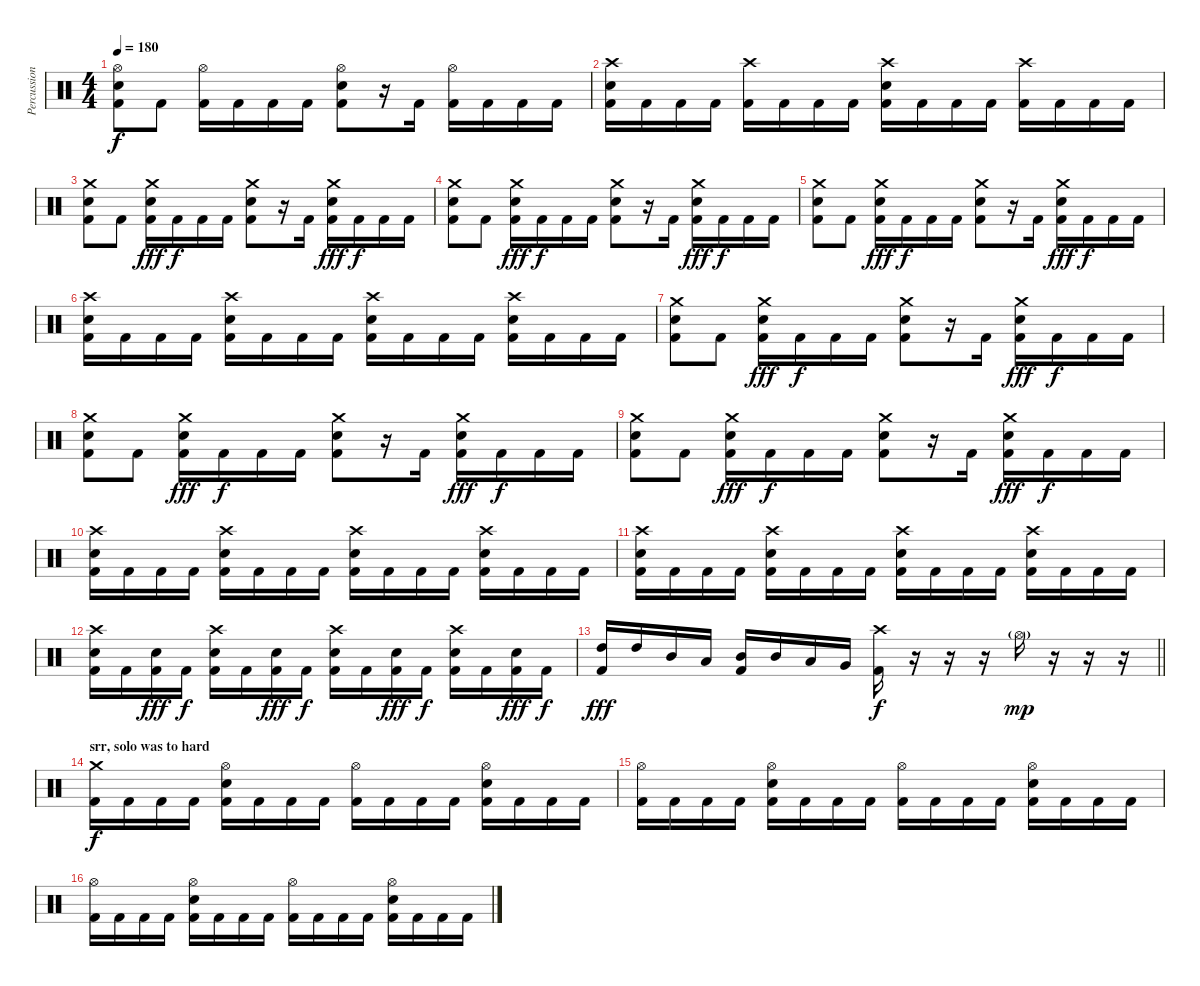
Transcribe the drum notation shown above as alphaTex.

\track ("Percussion" "Percussion") {instrument percussion}
\staff {score}
\articulation defaults
\ts (4 4)
\tempo 180
\clef neutral
\ks c
("Hi-Hat (open)" "Snare (hit) 2" "Kick (hit) 2").8{dy f} "Kick (hit) 2".8 ("Hi-Hat (open)" "Kick (hit) 2").16 "Kick (hit) 2".16 "Kick (hit) 2".16 "Kick (hit) 2".16 ("Hi-Hat (open)" "Snare (hit) 2" "Kick (hit) 2").8 r.16 "Kick (hit) 2".16 ("Hi-Hat (open)" "Kick (hit) 2").16 "Kick (hit) 2".16 "Kick (hit) 2".16 "Kick (hit) 2".16 |
("Crash high (hit)" "Snare (hit) 2" "Kick (hit) 2").16 "Kick (hit) 2".16 "Kick (hit) 2".16 "Kick (hit) 2".16 ("Crash high (hit)" "Kick (hit) 2").16 "Kick (hit) 2".16 "Kick (hit) 2".16 "Kick (hit) 2".16 ("Crash high (hit)" "Snare (hit) 2" "Kick (hit) 2").16 "Kick (hit) 2".16 "Kick (hit) 2".16 "Kick (hit) 2".16 ("Crash high (hit)" "Kick (hit) 2").16 "Kick (hit) 2".16 "Kick (hit) 2".16 "Kick (hit) 2".16 |
("Crash medium (hit)" "Snare (hit) 2" "Kick (hit) 2").8 "Kick (hit) 2".8 ("Crash medium (hit)" "Snare (hit) 2" "Kick (hit) 2").16{dy fff} "Kick (hit) 2".16{dy f} "Kick (hit) 2".16 "Kick (hit) 2".16 ("Crash medium (hit)" "Snare (hit) 2" "Kick (hit) 2").8 r.16 "Kick (hit) 2".16 ("Crash medium (hit)" "Snare (hit) 2" "Kick (hit) 2").16{dy fff} "Kick (hit) 2".16{dy f} "Kick (hit) 2".16 "Kick (hit) 2".16 |
("Crash medium (hit)" "Snare (hit) 2" "Kick (hit) 2").8 "Kick (hit) 2".8 ("Crash medium (hit)" "Snare (hit) 2" "Kick (hit) 2").16{dy fff} "Kick (hit) 2".16{dy f} "Kick (hit) 2".16 "Kick (hit) 2".16 ("Crash medium (hit)" "Snare (hit) 2" "Kick (hit) 2").8 r.16 "Kick (hit) 2".16 ("Crash medium (hit)" "Snare (hit) 2" "Kick (hit) 2").16{dy fff} "Kick (hit) 2".16{dy f} "Kick (hit) 2".16 "Kick (hit) 2".16 |
("Crash medium (hit)" "Snare (hit) 2" "Kick (hit) 2").8 "Kick (hit) 2".8 ("Crash medium (hit)" "Snare (hit) 2" "Kick (hit) 2").16{dy fff} "Kick (hit) 2".16{dy f} "Kick (hit) 2".16 "Kick (hit) 2".16 ("Crash medium (hit)" "Snare (hit) 2" "Kick (hit) 2").8 r.16 "Kick (hit) 2".16 ("Crash medium (hit)" "Snare (hit) 2" "Kick (hit) 2").16{dy fff} "Kick (hit) 2".16{dy f} "Kick (hit) 2".16 "Kick (hit) 2".16 |
("Crash high (hit)" "Snare (hit) 2" "Kick (hit) 2").16 "Kick (hit) 2".16 "Kick (hit) 2".16 "Kick (hit) 2".16 ("Crash high (hit)" "Snare (hit) 2" "Kick (hit) 2").16 "Kick (hit) 2".16 "Kick (hit) 2".16 "Kick (hit) 2".16 ("Crash high (hit)" "Snare (hit) 2" "Kick (hit) 2").16 "Kick (hit) 2".16 "Kick (hit) 2".16 "Kick (hit) 2".16 ("Crash high (hit)" "Snare (hit) 2" "Kick (hit) 2").16 "Kick (hit) 2".16 "Kick (hit) 2".16 "Kick (hit) 2".16 |
("Crash medium (hit)" "Snare (hit) 2" "Kick (hit) 2").8 "Kick (hit) 2".8 ("Crash medium (hit)" "Snare (hit) 2" "Kick (hit) 2").16{dy fff} "Kick (hit) 2".16{dy f} "Kick (hit) 2".16 "Kick (hit) 2".16 ("Crash medium (hit)" "Snare (hit) 2" "Kick (hit) 2").8 r.16 "Kick (hit) 2".16 ("Crash medium (hit)" "Snare (hit) 2" "Kick (hit) 2").16{dy fff} "Kick (hit) 2".16{dy f} "Kick (hit) 2".16 "Kick (hit) 2".16 |
("Crash medium (hit)" "Snare (hit) 2" "Kick (hit) 2").8 "Kick (hit) 2".8 ("Crash medium (hit)" "Snare (hit) 2" "Kick (hit) 2").16{dy fff} "Kick (hit) 2".16{dy f} "Kick (hit) 2".16 "Kick (hit) 2".16 ("Crash medium (hit)" "Snare (hit) 2" "Kick (hit) 2").8 r.16 "Kick (hit) 2".16 ("Crash medium (hit)" "Snare (hit) 2" "Kick (hit) 2").16{dy fff} "Kick (hit) 2".16{dy f} "Kick (hit) 2".16 "Kick (hit) 2".16 |
("Crash medium (hit)" "Snare (hit) 2" "Kick (hit) 2").8 "Kick (hit) 2".8 ("Crash medium (hit)" "Snare (hit) 2" "Kick (hit) 2").16{dy fff} "Kick (hit) 2".16{dy f} "Kick (hit) 2".16 "Kick (hit) 2".16 ("Crash medium (hit)" "Snare (hit) 2" "Kick (hit) 2").8 r.16 "Kick (hit) 2".16 ("Crash medium (hit)" "Snare (hit) 2" "Kick (hit) 2").16{dy fff} "Kick (hit) 2".16{dy f} "Kick (hit) 2".16 "Kick (hit) 2".16 |
("Crash high (hit)" "Snare (hit) 2" "Kick (hit) 2").16 "Kick (hit) 2".16 "Kick (hit) 2".16 "Kick (hit) 2".16 ("Crash high (hit)" "Snare (hit) 2" "Kick (hit) 2").16 "Kick (hit) 2".16 "Kick (hit) 2".16 "Kick (hit) 2".16 ("Crash high (hit)" "Snare (hit) 2" "Kick (hit) 2").16 "Kick (hit) 2".16 "Kick (hit) 2".16 "Kick (hit) 2".16 ("Crash high (hit)" "Snare (hit) 2" "Kick (hit) 2").16 "Kick (hit) 2".16 "Kick (hit) 2".16 "Kick (hit) 2".16 |
("Crash high (hit)" "Snare (hit) 2" "Kick (hit) 2").16 "Kick (hit) 2".16 "Kick (hit) 2".16 "Kick (hit) 2".16 ("Crash high (hit)" "Snare (hit) 2" "Kick (hit) 2").16 "Kick (hit) 2".16 "Kick (hit) 2".16 "Kick (hit) 2".16 ("Crash high (hit)" "Snare (hit) 2" "Kick (hit) 2").16 "Kick (hit) 2".16 "Kick (hit) 2".16 "Kick (hit) 2".16 ("Crash high (hit)" "Snare (hit) 2" "Kick (hit) 2").16 "Kick (hit) 2".16 "Kick (hit) 2".16 "Kick (hit) 2".16 |
("Crash high (hit)" "Snare (hit) 2" "Kick (hit) 2").16 "Kick (hit) 2".16 ("Snare (hit) 2" "Kick (hit) 2").16{dy fff} "Kick (hit) 2".16{dy f} ("Crash high (hit)" "Snare (hit) 2" "Kick (hit) 2").16 "Kick (hit) 2".16 ("Snare (hit) 2" "Kick (hit) 2").16{dy fff} "Kick (hit) 2".16{dy f} ("Crash high (hit)" "Snare (hit) 2" "Kick (hit) 2").16 "Kick (hit) 2".16 ("Snare (hit) 2" "Kick (hit) 2").16{dy fff} "Kick (hit) 2".16{dy f} ("Crash high (hit)" "Snare (hit) 2" "Kick (hit) 2").16 "Kick (hit) 2".16 ("Snare (hit) 2" "Kick (hit) 2").16{dy fff} "Kick (hit) 2".16{dy f} |
\barLineRight lightlight
("High Tom (hit)" "Kick (hit) 2").16{dy fff} "High Tom (hit)".16 "Mid Tom (hit)".16 "Low Tom (hit)".16 ("Mid Tom (hit)" "Kick (hit) 2").16 "Mid Tom (hit)".16 "Low Tom (hit)".16 "Very Low Tom (hit)".16 ("Crash high (hit)" "Kick (hit) 2").16{dy f} r.16 r.16 r.16 "Hi-Hat (open)"{g}.16{dy mp} r.16 r.16 r.16 |
\section ("" "srr, solo was to hard")
("Crash medium (hit)" "Kick (hit) 2").16{dy f} "Kick (hit) 2".16 "Kick (hit) 2".16 "Kick (hit) 2".16 ("Hi-Hat (open)" "Snare (hit) 2" "Kick (hit) 2").16 "Kick (hit) 2".16 "Kick (hit) 2".16 "Kick (hit) 2".16 ("Hi-Hat (open)" "Kick (hit) 2").16 "Kick (hit) 2".16 "Kick (hit) 2".16 "Kick (hit) 2".16 ("Hi-Hat (open)" "Snare (hit) 2" "Kick (hit) 2").16 "Kick (hit) 2".16 "Kick (hit) 2".16 "Kick (hit) 2".16 |
("Hi-Hat (open)" "Kick (hit) 2").16 "Kick (hit) 2".16 "Kick (hit) 2".16 "Kick (hit) 2".16 ("Hi-Hat (open)" "Snare (hit) 2" "Kick (hit) 2").16 "Kick (hit) 2".16 "Kick (hit) 2".16 "Kick (hit) 2".16 ("Hi-Hat (open)" "Kick (hit) 2").16 "Kick (hit) 2".16 "Kick (hit) 2".16 "Kick (hit) 2".16 ("Hi-Hat (open)" "Snare (hit) 2" "Kick (hit) 2").16 "Kick (hit) 2".16 "Kick (hit) 2".16 "Kick (hit) 2".16 |
("Hi-Hat (open)" "Kick (hit) 2").16 "Kick (hit) 2".16 "Kick (hit) 2".16 "Kick (hit) 2".16 ("Hi-Hat (open)" "Snare (hit) 2" "Kick (hit) 2").16 "Kick (hit) 2".16 "Kick (hit) 2".16 "Kick (hit) 2".16 ("Hi-Hat (open)" "Kick (hit) 2").16 "Kick (hit) 2".16 "Kick (hit) 2".16 "Kick (hit) 2".16 ("Hi-Hat (open)" "Snare (hit) 2" "Kick (hit) 2").16 "Kick (hit) 2".16 "Kick (hit) 2".16 "Kick (hit) 2".16
